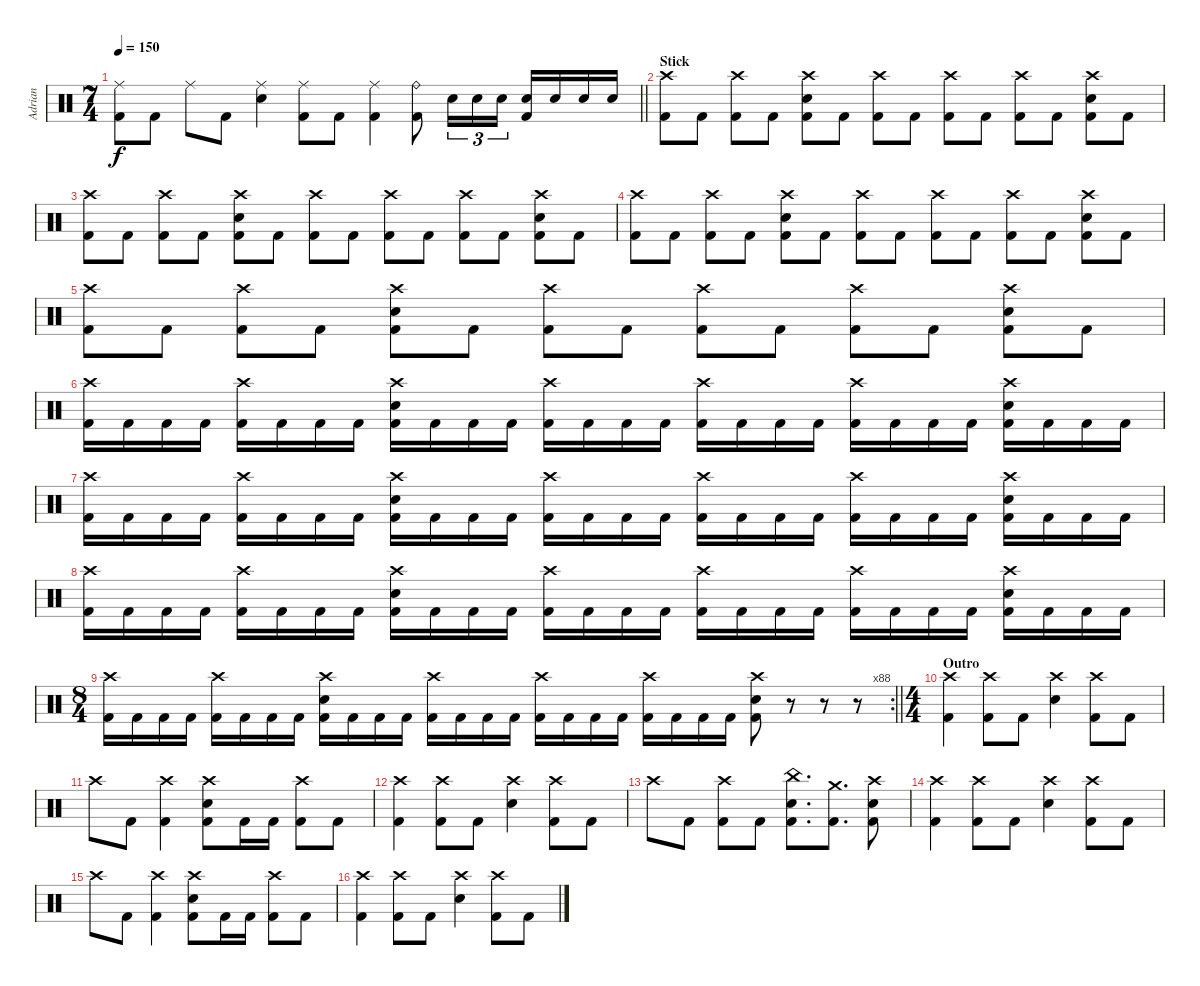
\track ("Adrian" "Adrian") {instrument percussion}
\staff {score}
\articulation defaults
\ts (7 4)
\tempo 150
\clef neutral
\barLineRight lightlight
\ks c
("Ride (middle)" "Kick (hit) 2").8{dy f} "Kick (hit) 2".8 "Ride (middle)".8 "Kick (hit) 2".8 ("Ride (middle)" "Snare (hit) 2").4 ("Ride (middle)" "Kick (hit) 2").8 "Kick (hit) 2".8 ("Ride (middle)" "Kick (hit) 2").4 ("Ride (bell)" "Kick (hit) 2").8 "Snare (hit) 2".16{tu (3 2)} "Snare (hit) 2".16{tu (3 2)} "Snare (hit) 2".16{tu (3 2)} ("Snare (hit) 2" "Kick (hit) 2").16 "Snare (hit) 2".16 "Snare (hit) 2".16 "Snare (hit) 2".16 |
\section ("" "Stick")
("Crash high (hit)" "Kick (hit) 2").8 "Kick (hit) 2".8 ("Crash high (hit)" "Kick (hit) 2").8 "Kick (hit) 2".8 ("Crash high (hit)" "Snare (hit) 2" "Kick (hit) 2").8 "Kick (hit) 2".8 ("Crash high (hit)" "Kick (hit) 2").8 "Kick (hit) 2".8 ("Crash high (hit)" "Kick (hit) 2").8 "Kick (hit) 2".8 ("Crash high (hit)" "Kick (hit) 2").8 "Kick (hit) 2".8 ("Crash high (hit)" "Snare (hit) 2" "Kick (hit) 2").8 "Kick (hit) 2".8 |
("Crash high (hit)" "Kick (hit) 2").8 "Kick (hit) 2".8 ("Crash high (hit)" "Kick (hit) 2").8 "Kick (hit) 2".8 ("Crash high (hit)" "Snare (hit) 2" "Kick (hit) 2").8 "Kick (hit) 2".8 ("Crash high (hit)" "Kick (hit) 2").8 "Kick (hit) 2".8 ("Crash high (hit)" "Kick (hit) 2").8 "Kick (hit) 2".8 ("Crash high (hit)" "Kick (hit) 2").8 "Kick (hit) 2".8 ("Crash high (hit)" "Snare (hit) 2" "Kick (hit) 2").8 "Kick (hit) 2".8 |
("Crash high (hit)" "Kick (hit) 2").8 "Kick (hit) 2".8 ("Crash high (hit)" "Kick (hit) 2").8 "Kick (hit) 2".8 ("Crash high (hit)" "Snare (hit) 2" "Kick (hit) 2").8 "Kick (hit) 2".8 ("Crash high (hit)" "Kick (hit) 2").8 "Kick (hit) 2".8 ("Crash high (hit)" "Kick (hit) 2").8 "Kick (hit) 2".8 ("Crash high (hit)" "Kick (hit) 2").8 "Kick (hit) 2".8 ("Crash high (hit)" "Snare (hit) 2" "Kick (hit) 2").8 "Kick (hit) 2".8 |
("Crash high (hit)" "Kick (hit) 2").8 "Kick (hit) 2".8 ("Crash high (hit)" "Kick (hit) 2").8 "Kick (hit) 2".8 ("Crash high (hit)" "Snare (hit) 2" "Kick (hit) 2").8 "Kick (hit) 2".8 ("Crash high (hit)" "Kick (hit) 2").8 "Kick (hit) 2".8 ("Crash high (hit)" "Kick (hit) 2").8 "Kick (hit) 2".8 ("Crash high (hit)" "Kick (hit) 2").8 "Kick (hit) 2".8 ("Crash high (hit)" "Snare (hit) 2" "Kick (hit) 2").8 "Kick (hit) 2".8 |
("Crash high (hit)" "Kick (hit) 2").16 "Kick (hit) 2".16 "Kick (hit) 2".16 "Kick (hit) 2".16 ("Crash high (hit)" "Kick (hit) 2").16 "Kick (hit) 2".16 "Kick (hit) 2".16 "Kick (hit) 2".16 ("Crash high (hit)" "Snare (hit) 2" "Kick (hit) 2").16 "Kick (hit) 2".16 "Kick (hit) 2".16 "Kick (hit) 2".16 ("Crash high (hit)" "Kick (hit) 2").16 "Kick (hit) 2".16 "Kick (hit) 2".16 "Kick (hit) 2".16 ("Crash high (hit)" "Kick (hit) 2").16 "Kick (hit) 2".16 "Kick (hit) 2".16 "Kick (hit) 2".16 ("Crash high (hit)" "Kick (hit) 2").16 "Kick (hit) 2".16 "Kick (hit) 2".16 "Kick (hit) 2".16 ("Crash high (hit)" "Snare (hit) 2" "Kick (hit) 2").16 "Kick (hit) 2".16 "Kick (hit) 2".16 "Kick (hit) 2".16 |
("Crash high (hit)" "Kick (hit) 2").16 "Kick (hit) 2".16 "Kick (hit) 2".16 "Kick (hit) 2".16 ("Crash high (hit)" "Kick (hit) 2").16 "Kick (hit) 2".16 "Kick (hit) 2".16 "Kick (hit) 2".16 ("Crash high (hit)" "Snare (hit) 2" "Kick (hit) 2").16 "Kick (hit) 2".16 "Kick (hit) 2".16 "Kick (hit) 2".16 ("Crash high (hit)" "Kick (hit) 2").16 "Kick (hit) 2".16 "Kick (hit) 2".16 "Kick (hit) 2".16 ("Crash high (hit)" "Kick (hit) 2").16 "Kick (hit) 2".16 "Kick (hit) 2".16 "Kick (hit) 2".16 ("Crash high (hit)" "Kick (hit) 2").16 "Kick (hit) 2".16 "Kick (hit) 2".16 "Kick (hit) 2".16 ("Crash high (hit)" "Snare (hit) 2" "Kick (hit) 2").16 "Kick (hit) 2".16 "Kick (hit) 2".16 "Kick (hit) 2".16 |
("Crash high (hit)" "Kick (hit) 2").16 "Kick (hit) 2".16 "Kick (hit) 2".16 "Kick (hit) 2".16 ("Crash high (hit)" "Kick (hit) 2").16 "Kick (hit) 2".16 "Kick (hit) 2".16 "Kick (hit) 2".16 ("Crash high (hit)" "Snare (hit) 2" "Kick (hit) 2").16 "Kick (hit) 2".16 "Kick (hit) 2".16 "Kick (hit) 2".16 ("Crash high (hit)" "Kick (hit) 2").16 "Kick (hit) 2".16 "Kick (hit) 2".16 "Kick (hit) 2".16 ("Crash high (hit)" "Kick (hit) 2").16 "Kick (hit) 2".16 "Kick (hit) 2".16 "Kick (hit) 2".16 ("Crash high (hit)" "Kick (hit) 2").16 "Kick (hit) 2".16 "Kick (hit) 2".16 "Kick (hit) 2".16 ("Crash high (hit)" "Snare (hit) 2" "Kick (hit) 2").16 "Kick (hit) 2".16 "Kick (hit) 2".16 "Kick (hit) 2".16 |
\rc 88
\ts (8 4)
\barLineRight lightlight
("Crash high (hit)" "Kick (hit) 2").16 "Kick (hit) 2".16 "Kick (hit) 2".16 "Kick (hit) 2".16 ("Crash high (hit)" "Kick (hit) 2").16 "Kick (hit) 2".16 "Kick (hit) 2".16 "Kick (hit) 2".16 ("Crash high (hit)" "Snare (hit) 2" "Kick (hit) 2").16 "Kick (hit) 2".16 "Kick (hit) 2".16 "Kick (hit) 2".16 ("Crash high (hit)" "Kick (hit) 2").16 "Kick (hit) 2".16 "Kick (hit) 2".16 "Kick (hit) 2".16 ("Crash high (hit)" "Kick (hit) 2").16 "Kick (hit) 2".16 "Kick (hit) 2".16 "Kick (hit) 2".16 ("Crash high (hit)" "Kick (hit) 2").16 "Kick (hit) 2".16 "Kick (hit) 2".16 "Kick (hit) 2".16 ("Crash high (hit)" "Snare (hit) 2" "Kick (hit) 2").8 r.8 r.8 r.8 |
\ts (4 4)
\section ("" "Outro")
("Crash high (hit)" "Kick (hit) 2").4 ("Crash high (hit)" "Kick (hit) 2").8 "Kick (hit) 2".8 ("Crash high (hit)" "Snare (hit) 2").4 ("Crash high (hit)" "Kick (hit) 2").8 "Kick (hit) 2".8 |
"Crash high (hit)".8 "Kick (hit) 2".8 ("Crash high (hit)" "Kick (hit) 2").4 ("Crash high (hit)" "Snare (hit) 2" "Kick (hit) 2").8 "Kick (hit) 2".16 "Kick (hit) 2".16 ("Crash high (hit)" "Kick (hit) 2").8 "Kick (hit) 2".8 |
("Crash high (hit)" "Kick (hit) 2").4 ("Crash high (hit)" "Kick (hit) 2").8 "Kick (hit) 2".8 ("Crash high (hit)" "Snare (hit) 2").4 ("Crash high (hit)" "Kick (hit) 2").8 "Kick (hit) 2".8 |
"Crash high (hit)".8 "Kick (hit) 2".8 ("Crash high (hit)" "Kick (hit) 2").8 "Kick (hit) 2".8 ("China (hit)" "Snare (hit) 2" "Kick (hit) 2").8{d} ("Crash medium (hit)" "Kick (hit) 2").8{d} ("Crash high (hit)" "Snare (hit) 2" "Kick (hit) 2").8 |
("Crash high (hit)" "Kick (hit) 2").4 ("Crash high (hit)" "Kick (hit) 2").8 "Kick (hit) 2".8 ("Crash high (hit)" "Snare (hit) 2").4 ("Crash high (hit)" "Kick (hit) 2").8 "Kick (hit) 2".8 |
"Crash high (hit)".8 "Kick (hit) 2".8 ("Crash high (hit)" "Kick (hit) 2").4 ("Crash high (hit)" "Snare (hit) 2" "Kick (hit) 2").8 "Kick (hit) 2".16 "Kick (hit) 2".16 ("Crash high (hit)" "Kick (hit) 2").8 "Kick (hit) 2".8 |
("Crash high (hit)" "Kick (hit) 2").4 ("Crash high (hit)" "Kick (hit) 2").8 "Kick (hit) 2".8 ("Crash high (hit)" "Snare (hit) 2").4 ("Crash high (hit)" "Kick (hit) 2").8 "Kick (hit) 2".8
